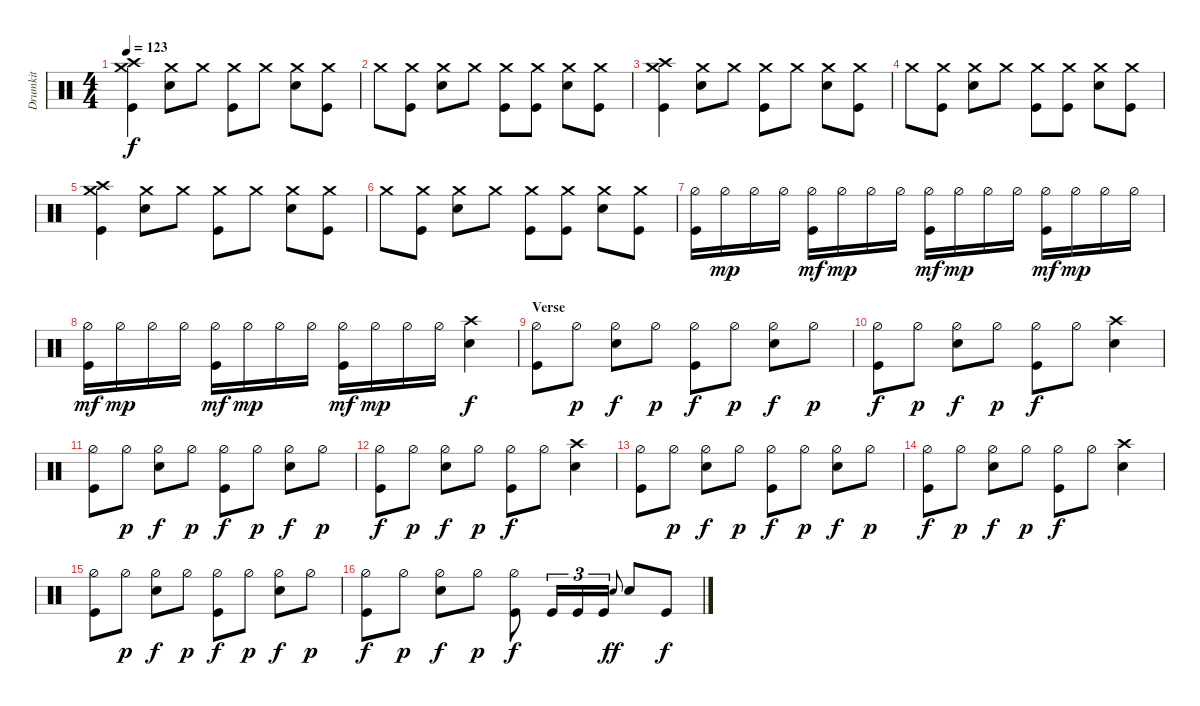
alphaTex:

\track ("Drumkit" "Drumkit") {instrument percussion}
\staff {score}
\articulation defaults
\ts (4 4)
\tempo 123
\clef neutral
\ks c
("Kick (hit)" "Crash medium (hit)" "Crash high (hit)").4{dy f} ("Snare (hit) 2" "Crash medium (hit)").8 "Crash medium (hit)".8 ("Kick (hit)" "Crash medium (hit)").8 "Crash medium (hit)".8 ("Snare (hit) 2" "Crash medium (hit)").8 ("Crash medium (hit)" "Kick (hit)").8 |
"Crash medium (hit)".8 ("Crash medium (hit)" "Kick (hit)").8 ("Snare (hit) 2" "Crash medium (hit)").8 "Crash medium (hit)".8 ("Kick (hit)" "Crash medium (hit)").8 ("Crash medium (hit)" "Kick (hit)").8 ("Snare (hit) 2" "Crash medium (hit)").8 ("Crash medium (hit)" "Kick (hit)").8 |
("Kick (hit)" "Crash medium (hit)" "Crash high (hit)").4 ("Snare (hit) 2" "Crash medium (hit)").8 "Crash medium (hit)".8 ("Kick (hit)" "Crash medium (hit)").8 "Crash medium (hit)".8 ("Snare (hit) 2" "Crash medium (hit)").8 ("Crash medium (hit)" "Kick (hit)").8 |
"Crash medium (hit)".8 ("Crash medium (hit)" "Kick (hit)").8 ("Snare (hit) 2" "Crash medium (hit)").8 "Crash medium (hit)".8 ("Kick (hit)" "Crash medium (hit)").8 ("Crash medium (hit)" "Kick (hit)").8 ("Snare (hit) 2" "Crash medium (hit)").8 ("Crash medium (hit)" "Kick (hit)").8 |
("Kick (hit)" "Crash medium (hit)" "Crash high (hit)").4 ("Snare (hit) 2" "Crash medium (hit)").8 "Crash medium (hit)".8 ("Kick (hit)" "Crash medium (hit)").8 "Crash medium (hit)".8 ("Snare (hit) 2" "Crash medium (hit)").8 ("Crash medium (hit)" "Kick (hit)").8 |
"Crash medium (hit)".8 ("Crash medium (hit)" "Kick (hit)").8 ("Snare (hit) 2" "Crash medium (hit)").8 "Crash medium (hit)".8 ("Kick (hit)" "Crash medium (hit)").8 ("Crash medium (hit)" "Kick (hit)").8 ("Snare (hit) 2" "Crash medium (hit)").8 ("Crash medium (hit)" "Kick (hit)").8 |
("Kick (hit)" "Hi-Hat (half)").16 "Hi-Hat (half)".16{dy mp} "Hi-Hat (half)".16 "Hi-Hat (half)".16 ("Hi-Hat (half)" "Kick (hit)").16{dy mf} "Hi-Hat (half)".16{dy mp} "Hi-Hat (half)".16 "Hi-Hat (half)".16 ("Hi-Hat (half)" "Kick (hit)").16{dy mf} "Hi-Hat (half)".16{dy mp} "Hi-Hat (half)".16 "Hi-Hat (half)".16 ("Hi-Hat (half)" "Kick (hit)").16{dy mf} "Hi-Hat (half)".16{dy mp} "Hi-Hat (half)".16 "Hi-Hat (half)".16 |
("Kick (hit)" "Hi-Hat (half)").16{dy mf} "Hi-Hat (half)".16{dy mp} "Hi-Hat (half)".16 "Hi-Hat (half)".16 ("Hi-Hat (half)" "Kick (hit)").16{dy mf} "Hi-Hat (half)".16{dy mp} "Hi-Hat (half)".16 "Hi-Hat (half)".16 ("Hi-Hat (half)" "Kick (hit)").16{dy mf} "Hi-Hat (half)".16{dy mp} "Hi-Hat (half)".16 "Hi-Hat (half)".16 ("Snare (hit) 2" "Crash high (hit)").4{dy f} |
\section ("" "Verse")
("Hi-Hat (half)" "Kick (hit)").8 "Hi-Hat (half)".8{dy p} ("Hi-Hat (half)" "Snare (hit) 2").8{dy f} "Hi-Hat (half)".8{dy p} ("Hi-Hat (half)" "Kick (hit)").8{dy f} "Hi-Hat (half)".8{dy p} ("Hi-Hat (half)" "Snare (hit) 2").8{dy f} "Hi-Hat (half)".8{dy p} |
("Hi-Hat (half)" "Kick (hit)").8{dy f} "Hi-Hat (half)".8{dy p} ("Hi-Hat (half)" "Snare (hit) 2").8{dy f} "Hi-Hat (half)".8{dy p} ("Hi-Hat (half)" "Kick (hit)").8{dy f} "Hi-Hat (half)".8 ("Snare (hit) 2" "Crash high (hit)").4 |
("Hi-Hat (half)" "Kick (hit)").8 "Hi-Hat (half)".8{dy p} ("Hi-Hat (half)" "Snare (hit) 2").8{dy f} "Hi-Hat (half)".8{dy p} ("Hi-Hat (half)" "Kick (hit)").8{dy f} "Hi-Hat (half)".8{dy p} ("Hi-Hat (half)" "Snare (hit) 2").8{dy f} "Hi-Hat (half)".8{dy p} |
("Hi-Hat (half)" "Kick (hit)").8{dy f} "Hi-Hat (half)".8{dy p} ("Hi-Hat (half)" "Snare (hit) 2").8{dy f} "Hi-Hat (half)".8{dy p} ("Hi-Hat (half)" "Kick (hit)").8{dy f} "Hi-Hat (half)".8 ("Snare (hit) 2" "Crash high (hit)").4 |
("Hi-Hat (half)" "Kick (hit)").8 "Hi-Hat (half)".8{dy p} ("Hi-Hat (half)" "Snare (hit) 2").8{dy f} "Hi-Hat (half)".8{dy p} ("Hi-Hat (half)" "Kick (hit)").8{dy f} "Hi-Hat (half)".8{dy p} ("Hi-Hat (half)" "Snare (hit) 2").8{dy f} "Hi-Hat (half)".8{dy p} |
("Hi-Hat (half)" "Kick (hit)").8{dy f} "Hi-Hat (half)".8{dy p} ("Hi-Hat (half)" "Snare (hit) 2").8{dy f} "Hi-Hat (half)".8{dy p} ("Hi-Hat (half)" "Kick (hit)").8{dy f} "Hi-Hat (half)".8 ("Snare (hit) 2" "Crash high (hit)").4 |
("Hi-Hat (half)" "Kick (hit)").8 "Hi-Hat (half)".8{dy p} ("Hi-Hat (half)" "Snare (hit) 2").8{dy f} "Hi-Hat (half)".8{dy p} ("Hi-Hat (half)" "Kick (hit)").8{dy f} "Hi-Hat (half)".8{dy p} ("Hi-Hat (half)" "Snare (hit) 2").8{dy f} "Hi-Hat (half)".8{dy p} |
("Hi-Hat (half)" "Kick (hit)").8{dy f} "Hi-Hat (half)".8{dy p} ("Hi-Hat (half)" "Snare (hit) 2").8{dy f} "Hi-Hat (half)".8{dy p} ("Hi-Hat (half)" "Kick (hit)").8{dy f} "Kick (hit)".16{tu (3 2)} "Kick (hit)".16{tu (3 2)} "Kick (hit)".16{tu (3 2)} "Snare (hit)".8{gr onbeat dy ff} "Snare (hit) 2".8 "Kick (hit)".8{dy f}
